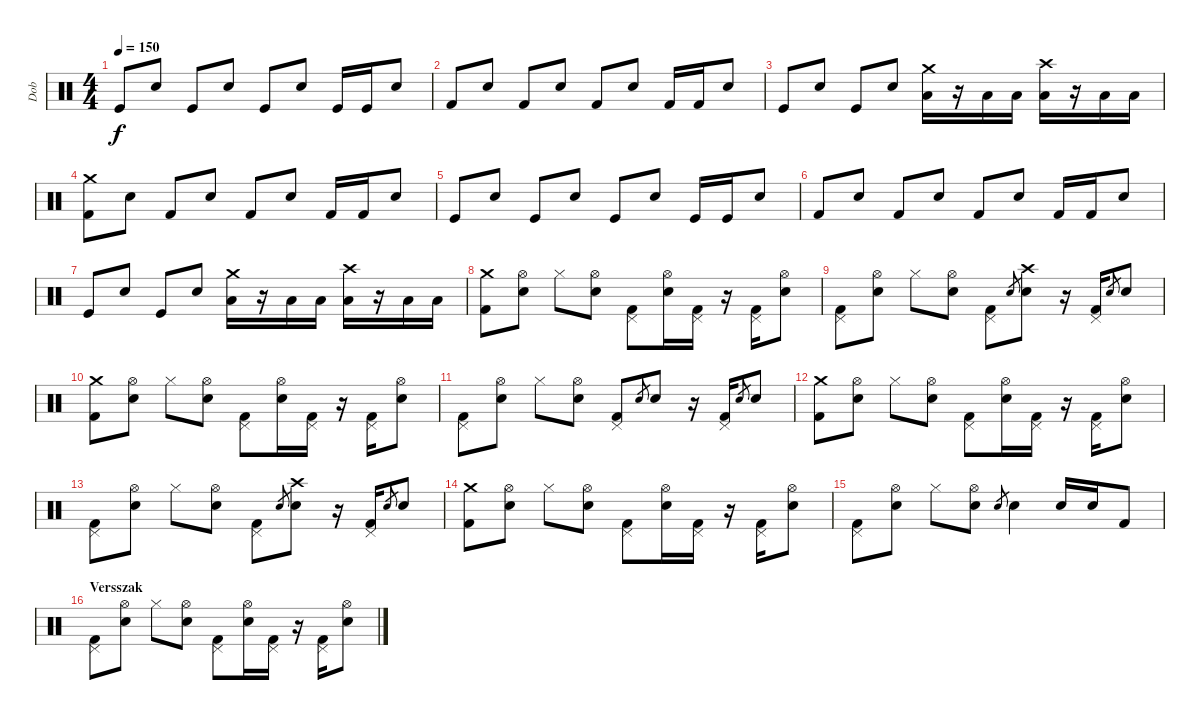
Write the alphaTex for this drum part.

\track ("Dob" "Dob") {instrument percussion}
\staff {score}
\articulation defaults
\ts (4 4)
\tempo 150
\clef neutral
\ks c "Kick (hit)".8{dy f} "Electric Snare (hit)".8 "Kick (hit)".8 "Electric Snare (hit)".8 "Kick (hit)".8 "Electric Snare (hit)".8 "Kick (hit)".16 "Kick (hit)".16 "Electric Snare (hit)".8
|
"Kick (hit) 2".8 "Snare (hit) 2".8 "Kick (hit) 2".8 "Snare (hit) 2".8 "Kick (hit) 2".8 "Snare (hit) 2".8 "Kick (hit) 2".16 "Kick (hit) 2".16 "Snare (hit) 2".8 |
"Kick (hit)".8 "Electric Snare (hit)".8 "Kick (hit)".8 "Electric Snare (hit)".8 ("Low Tom (hit)" "Crash medium (hit)").16 r.16 "Low Tom (hit)".16 "Low Tom (hit)".16 ("Low Floor Tom (hit)" "Crash high (hit)").16 r.16 "Low Floor Tom (hit)".16 "Low Floor Tom (hit)".16 |
("Kick (hit) 2" "Crash medium (hit)").8 "Snare (hit) 2".8 "Kick (hit) 2".8 "Snare (hit) 2".8 "Kick (hit) 2".8 "Snare (hit) 2".8 "Kick (hit) 2".16 "Kick (hit) 2".16 "Snare (hit) 2".8 |
"Kick (hit)".8 "Electric Snare (hit)".8 "Kick (hit)".8 "Electric Snare (hit)".8 "Kick (hit)".8 "Electric Snare (hit)".8 "Kick (hit)".16 "Kick (hit)".16 "Electric Snare (hit)".8 |
"Kick (hit) 2".8 "Snare (hit) 2".8 "Kick (hit) 2".8 "Snare (hit) 2".8 "Kick (hit) 2".8 "Snare (hit) 2".8 "Kick (hit) 2".16 "Kick (hit) 2".16 "Snare (hit) 2".8 |
"Kick (hit)".8 "Electric Snare (hit)".8 "Kick (hit)".8 "Electric Snare (hit)".8 ("Low Tom (hit)" "Crash medium (hit)").16 r.16 "Low Tom (hit)".16 "Low Tom (hit)".16 ("Low Floor Tom (hit)" "Crash high (hit)").16 r.16 "Low Floor Tom (hit)".16 "Low Floor Tom (hit)".16 |
("Kick (hit) 2" "Crash medium (hit)").8 ("Snare (hit) 2" "Hi-Hat (open)").8 "Hi-Hat (closed)".8 ("Snare (hit) 2" "Hi-Hat (open)").8 ("Kick (hit) 2" "Pedal Hi-Hat (hit)").8 ("Snare (hit) 2" "Hi-Hat (open)").16 ("Kick (hit) 2" "Pedal Hi-Hat (hit)").16 r.16 ("Kick (hit) 2" "Pedal Hi-Hat (hit)").16 ("Snare (hit) 2" "Hi-Hat (open)").8 |
("Kick (hit) 2" "Pedal Hi-Hat (hit)").8 ("Snare (hit) 2" "Hi-Hat (open)").8 "Hi-Hat (closed)".8 ("Snare (hit) 2" "Hi-Hat (open)").8 ("Kick (hit) 2" "Pedal Hi-Hat (hit)").8 "Snare (hit) 2".8{gr} ("Snare (hit) 2" "Crash high (hit)").8 r.16 ("Kick (hit) 2" "Pedal Hi-Hat (hit)").16 "Snare (hit) 2".8{gr} "Snare (hit) 2".8 |
("Kick (hit) 2" "Crash medium (hit)").8 ("Snare (hit) 2" "Hi-Hat (open)").8 "Hi-Hat (closed)".8 ("Snare (hit) 2" "Hi-Hat (open)").8 ("Kick (hit) 2" "Pedal Hi-Hat (hit)").8 ("Snare (hit) 2" "Hi-Hat (open)").16 ("Kick (hit) 2" "Pedal Hi-Hat (hit)").16 r.16 ("Kick (hit) 2" "Pedal Hi-Hat (hit)").16 ("Snare (hit) 2" "Hi-Hat (open)").8 |
("Kick (hit) 2" "Pedal Hi-Hat (hit)").8 ("Snare (hit) 2" "Hi-Hat (open)").8 "Hi-Hat (closed)".8 ("Snare (hit) 2" "Hi-Hat (open)").8 ("Kick (hit) 2" "Pedal Hi-Hat (hit)").8 "Snare (hit) 2".8{gr} "Snare (hit) 2".8 r.16 ("Kick (hit) 2" "Pedal Hi-Hat (hit)").16 "Snare (hit) 2".8{gr} "Snare (hit) 2".8 |
("Kick (hit) 2" "Crash medium (hit)").8 ("Snare (hit) 2" "Hi-Hat (open)").8 "Hi-Hat (closed)".8 ("Snare (hit) 2" "Hi-Hat (open)").8 ("Kick (hit) 2" "Pedal Hi-Hat (hit)").8 ("Snare (hit) 2" "Hi-Hat (open)").16 ("Kick (hit) 2" "Pedal Hi-Hat (hit)").16 r.16 ("Kick (hit) 2" "Pedal Hi-Hat (hit)").16 ("Snare (hit) 2" "Hi-Hat (open)").8 |
("Kick (hit) 2" "Pedal Hi-Hat (hit)").8 ("Snare (hit) 2" "Hi-Hat (open)").8 "Hi-Hat (closed)".8 ("Snare (hit) 2" "Hi-Hat (open)").8 ("Kick (hit) 2" "Pedal Hi-Hat (hit)").8 "Snare (hit) 2".8{gr} ("Snare (hit) 2" "Crash high (hit)").8 r.16 ("Kick (hit) 2" "Pedal Hi-Hat (hit)").16 "Snare (hit) 2".8{gr} "Snare (hit) 2".8 |
("Kick (hit) 2" "Crash medium (hit)").8 ("Snare (hit) 2" "Hi-Hat (open)").8 "Hi-Hat (closed)".8 ("Snare (hit) 2" "Hi-Hat (open)").8 ("Kick (hit) 2" "Pedal Hi-Hat (hit)").8 ("Snare (hit) 2" "Hi-Hat (open)").16 ("Kick (hit) 2" "Pedal Hi-Hat (hit)").16 r.16 ("Kick (hit) 2" "Pedal Hi-Hat (hit)").16 ("Snare (hit) 2" "Hi-Hat (open)").8 |
("Kick (hit) 2" "Pedal Hi-Hat (hit)").8 ("Snare (hit) 2" "Hi-Hat (open)").8 "Hi-Hat (closed)".8 ("Snare (hit) 2" "Hi-Hat (open)").8 "Snare (hit) 2".8{gr} "Snare (hit) 2".4 "Snare (hit) 2".16 "Snare (hit) 2".16 "Kick (hit) 2".8 |
\section ("" "Versszak")
("Kick (hit) 2" "Pedal Hi-Hat (hit)").8 ("Snare (hit) 2" "Hi-Hat (open)").8 "Hi-Hat (closed)".8 ("Snare (hit) 2" "Hi-Hat (open)").8 ("Kick (hit) 2" "Pedal Hi-Hat (hit)").8 ("Snare (hit) 2" "Hi-Hat (open)").16 ("Kick (hit) 2" "Pedal Hi-Hat (hit)").16 r.16 ("Kick (hit) 2" "Pedal Hi-Hat (hit)").16 ("Snare (hit) 2" "Hi-Hat (open)").8
